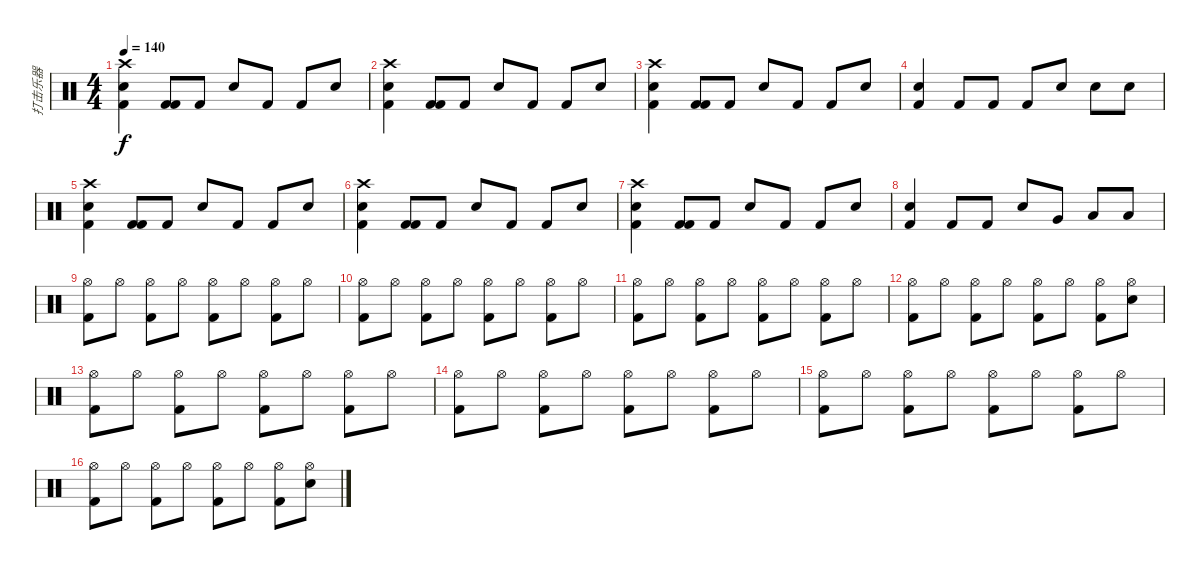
\track ("打击乐器" "打击乐器") {instrument percussion}
\staff {score}
\articulation defaults
\ts (4 4)
\tempo 140
\clef neutral
\ks c
("Crash high (hit)" "Snare (hit) 2" "Kick (hit) 2").4{dy f} ("Kick (hit) 2" "Kick (hit) 2").8 "Kick (hit) 2".8 "Snare (hit) 2".8 "Kick (hit) 2".8 "Kick (hit) 2".8 "Snare (hit) 2".8 |
("Crash high (hit)" "Snare (hit) 2" "Kick (hit) 2").4 ("Kick (hit) 2" "Kick (hit) 2").8 "Kick (hit) 2".8 "Snare (hit) 2".8 "Kick (hit) 2".8 "Kick (hit) 2".8 "Snare (hit) 2".8 |
("Crash high (hit)" "Snare (hit) 2" "Kick (hit) 2").4 ("Kick (hit) 2" "Kick (hit) 2").8 "Kick (hit) 2".8 "Snare (hit) 2".8 "Kick (hit) 2".8 "Kick (hit) 2".8 "Snare (hit) 2".8 |
("Kick (hit) 2" "Snare (hit) 2").4 "Kick (hit) 2".8 "Kick (hit) 2".8 "Kick (hit) 2".8 "Snare (hit) 2".8 "Snare (hit) 2".8 "Snare (hit) 2".8 |
("Crash high (hit)" "Snare (hit) 2" "Kick (hit) 2").4 ("Kick (hit) 2" "Kick (hit) 2").8 "Kick (hit) 2".8 "Snare (hit) 2".8 "Kick (hit) 2".8 "Kick (hit) 2".8 "Snare (hit) 2".8 |
("Crash high (hit)" "Snare (hit) 2" "Kick (hit) 2").4 ("Kick (hit) 2" "Kick (hit) 2").8 "Kick (hit) 2".8 "Snare (hit) 2".8 "Kick (hit) 2".8 "Kick (hit) 2".8 "Snare (hit) 2".8 |
("Crash high (hit)" "Snare (hit) 2" "Kick (hit) 2").4 ("Kick (hit) 2" "Kick (hit) 2").8 "Kick (hit) 2".8 "Snare (hit) 2".8 "Kick (hit) 2".8 "Kick (hit) 2".8 "Snare (hit) 2".8 |
("Kick (hit) 2" "Snare (hit) 2").4 "Kick (hit) 2".8 "Kick (hit) 2".8 "Snare (hit) 2".8 "Very Low Tom (hit)".8 "Low Tom (hit)".8 "Low Floor Tom (hit)".8 |
("Kick (hit) 2" "Hi-Hat (open)").8 "Hi-Hat (open)".8 ("Kick (hit) 2" "Hi-Hat (open)").8 "Hi-Hat (open)".8 ("Kick (hit) 2" "Hi-Hat (open)").8 "Hi-Hat (open)".8 ("Kick (hit) 2" "Hi-Hat (open)").8 "Hi-Hat (open)".8 |
("Kick (hit) 2" "Hi-Hat (open)").8 "Hi-Hat (open)".8 ("Kick (hit) 2" "Hi-Hat (open)").8 "Hi-Hat (open)".8 ("Kick (hit) 2" "Hi-Hat (open)").8 "Hi-Hat (open)".8 ("Kick (hit) 2" "Hi-Hat (open)").8 "Hi-Hat (open)".8 |
("Kick (hit) 2" "Hi-Hat (open)").8 "Hi-Hat (open)".8 ("Kick (hit) 2" "Hi-Hat (open)").8 "Hi-Hat (open)".8 ("Kick (hit) 2" "Hi-Hat (open)").8 "Hi-Hat (open)".8 ("Kick (hit) 2" "Hi-Hat (open)").8 "Hi-Hat (open)".8 |
("Kick (hit) 2" "Hi-Hat (open)").8 "Hi-Hat (open)".8 ("Kick (hit) 2" "Hi-Hat (open)").8 "Hi-Hat (open)".8 ("Kick (hit) 2" "Hi-Hat (open)").8 "Hi-Hat (open)".8 ("Kick (hit) 2" "Hi-Hat (open)").8 ("Snare (hit) 2" "Hi-Hat (open)").8 |
("Kick (hit) 2" "Hi-Hat (open)").8 "Hi-Hat (open)".8 ("Kick (hit) 2" "Hi-Hat (open)").8 "Hi-Hat (open)".8 ("Kick (hit) 2" "Hi-Hat (open)").8 "Hi-Hat (open)".8 ("Kick (hit) 2" "Hi-Hat (open)").8 "Hi-Hat (open)".8 |
("Kick (hit) 2" "Hi-Hat (open)").8 "Hi-Hat (open)".8 ("Kick (hit) 2" "Hi-Hat (open)").8 "Hi-Hat (open)".8 ("Kick (hit) 2" "Hi-Hat (open)").8 "Hi-Hat (open)".8 ("Kick (hit) 2" "Hi-Hat (open)").8 "Hi-Hat (open)".8 |
("Kick (hit) 2" "Hi-Hat (open)").8 "Hi-Hat (open)".8 ("Kick (hit) 2" "Hi-Hat (open)").8 "Hi-Hat (open)".8 ("Kick (hit) 2" "Hi-Hat (open)").8 "Hi-Hat (open)".8 ("Kick (hit) 2" "Hi-Hat (open)").8 "Hi-Hat (open)".8 |
("Kick (hit) 2" "Hi-Hat (open)").8 "Hi-Hat (open)".8 ("Kick (hit) 2" "Hi-Hat (open)").8 "Hi-Hat (open)".8 ("Kick (hit) 2" "Hi-Hat (open)").8 "Hi-Hat (open)".8 ("Kick (hit) 2" "Hi-Hat (open)").8 ("Snare (hit) 2" "Hi-Hat (open)").8
